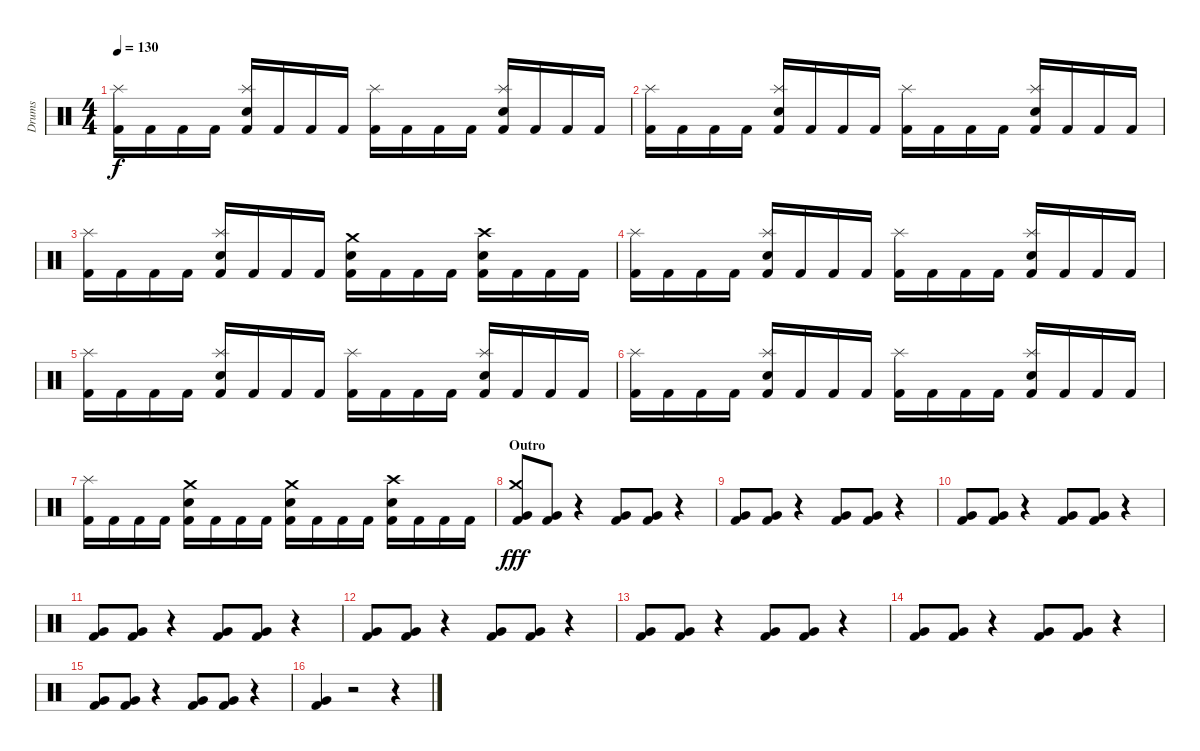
\track ("Drums" "Drums") {instrument percussion}
\staff {score}
\articulation defaults
\ts (4 4)
\tempo 130
\clef neutral
\ks c
("Kick (hit) 2" "Splash (hit)").16{dy f} "Kick (hit) 2".16 "Kick (hit) 2".16 "Kick (hit) 2".16 ("Kick (hit) 2" "Electric Snare (hit)" "Splash (hit)").16 "Kick (hit) 2".16 "Kick (hit) 2".16 "Kick (hit) 2".16 ("Kick (hit) 2" "Splash (hit)").16 "Kick (hit) 2".16 "Kick (hit) 2".16 "Kick (hit) 2".16 ("Kick (hit) 2" "Electric Snare (hit)" "Splash (hit)").16 "Kick (hit) 2".16 "Kick (hit) 2".16 "Kick (hit) 2".16 |
("Kick (hit) 2" "Splash (hit)").16 "Kick (hit) 2".16 "Kick (hit) 2".16 "Kick (hit) 2".16 ("Kick (hit) 2" "Electric Snare (hit)" "Splash (hit)").16 "Kick (hit) 2".16 "Kick (hit) 2".16 "Kick (hit) 2".16 ("Kick (hit) 2" "Splash (hit)").16 "Kick (hit) 2".16 "Kick (hit) 2".16 "Kick (hit) 2".16 ("Kick (hit) 2" "Electric Snare (hit)" "Splash (hit)").16 "Kick (hit) 2".16 "Kick (hit) 2".16 "Kick (hit) 2".16 |
("Kick (hit) 2" "Splash (hit)").16 "Kick (hit) 2".16 "Kick (hit) 2".16 "Kick (hit) 2".16 ("Kick (hit) 2" "Electric Snare (hit)" "Splash (hit)").16 "Kick (hit) 2".16 "Kick (hit) 2".16 "Kick (hit) 2".16 ("Kick (hit) 2" "Electric Snare (hit)" "Crash medium (hit)").16 "Kick (hit) 2".16 "Kick (hit) 2".16 "Kick (hit) 2".16 ("Kick (hit) 2" "Electric Snare (hit)" "Crash high (hit)").16 "Kick (hit) 2".16 "Kick (hit) 2".16 "Kick (hit) 2".16 |
("Kick (hit) 2" "Splash (hit)").16 "Kick (hit) 2".16 "Kick (hit) 2".16 "Kick (hit) 2".16 ("Kick (hit) 2" "Electric Snare (hit)" "Splash (hit)").16 "Kick (hit) 2".16 "Kick (hit) 2".16 "Kick (hit) 2".16 ("Kick (hit) 2" "Splash (hit)").16 "Kick (hit) 2".16 "Kick (hit) 2".16 "Kick (hit) 2".16 ("Kick (hit) 2" "Electric Snare (hit)" "Splash (hit)").16 "Kick (hit) 2".16 "Kick (hit) 2".16 "Kick (hit) 2".16 |
("Kick (hit) 2" "Splash (hit)").16 "Kick (hit) 2".16 "Kick (hit) 2".16 "Kick (hit) 2".16 ("Kick (hit) 2" "Electric Snare (hit)" "Splash (hit)").16 "Kick (hit) 2".16 "Kick (hit) 2".16 "Kick (hit) 2".16 ("Kick (hit) 2" "Splash (hit)").16 "Kick (hit) 2".16 "Kick (hit) 2".16 "Kick (hit) 2".16 ("Kick (hit) 2" "Electric Snare (hit)" "Splash (hit)").16 "Kick (hit) 2".16 "Kick (hit) 2".16 "Kick (hit) 2".16 |
("Kick (hit) 2" "Splash (hit)").16 "Kick (hit) 2".16 "Kick (hit) 2".16 "Kick (hit) 2".16 ("Kick (hit) 2" "Electric Snare (hit)" "Splash (hit)").16 "Kick (hit) 2".16 "Kick (hit) 2".16 "Kick (hit) 2".16 ("Kick (hit) 2" "Splash (hit)").16 "Kick (hit) 2".16 "Kick (hit) 2".16 "Kick (hit) 2".16 ("Kick (hit) 2" "Electric Snare (hit)" "Splash (hit)").16 "Kick (hit) 2".16 "Kick (hit) 2".16 "Kick (hit) 2".16 |
("Kick (hit) 2" "Splash (hit)").16 "Kick (hit) 2".16 "Kick (hit) 2".16 "Kick (hit) 2".16 ("Kick (hit) 2" "Electric Snare (hit)" "Crash medium (hit)").16 "Kick (hit) 2".16 "Kick (hit) 2".16 "Kick (hit) 2".16 ("Kick (hit) 2" "Electric Snare (hit)" "Crash medium (hit)").16 "Kick (hit) 2".16 "Kick (hit) 2".16 "Kick (hit) 2".16 ("Kick (hit) 2" "Electric Snare (hit)" "Crash high (hit)").16 "Kick (hit) 2".16 "Kick (hit) 2".16 "Kick (hit) 2".16 |
\section ("" "Outro")
("Kick (hit) 2" "Very Low Tom (hit)" "Crash medium (hit)").8{dy fff} ("Kick (hit) 2" "Very Low Tom (hit)").8 r.4 ("Kick (hit) 2" "Very Low Tom (hit)").8 ("Kick (hit) 2" "Very Low Tom (hit)").8 r.4 |
("Kick (hit) 2" "Very Low Tom (hit)").8 ("Kick (hit) 2" "Very Low Tom (hit)").8 r.4 ("Kick (hit) 2" "Very Low Tom (hit)").8 ("Kick (hit) 2" "Very Low Tom (hit)").8 r.4 |
("Kick (hit) 2" "Very Low Tom (hit)").8 ("Kick (hit) 2" "Very Low Tom (hit)").8 r.4 ("Kick (hit) 2" "Very Low Tom (hit)").8 ("Kick (hit) 2" "Very Low Tom (hit)").8 r.4 |
("Kick (hit) 2" "Very Low Tom (hit)").8 ("Kick (hit) 2" "Very Low Tom (hit)").8 r.4 ("Kick (hit) 2" "Very Low Tom (hit)").8 ("Kick (hit) 2" "Very Low Tom (hit)").8 r.4 |
("Kick (hit) 2" "Very Low Tom (hit)").8 ("Kick (hit) 2" "Very Low Tom (hit)").8 r.4 ("Kick (hit) 2" "Very Low Tom (hit)").8 ("Kick (hit) 2" "Very Low Tom (hit)").8 r.4 |
("Kick (hit) 2" "Very Low Tom (hit)").8 ("Kick (hit) 2" "Very Low Tom (hit)").8 r.4 ("Kick (hit) 2" "Very Low Tom (hit)").8 ("Kick (hit) 2" "Very Low Tom (hit)").8 r.4 |
("Kick (hit) 2" "Very Low Tom (hit)").8 ("Kick (hit) 2" "Very Low Tom (hit)").8 r.4 ("Kick (hit) 2" "Very Low Tom (hit)").8 ("Kick (hit) 2" "Very Low Tom (hit)").8 r.4 |
("Kick (hit) 2" "Very Low Tom (hit)").8 ("Kick (hit) 2" "Very Low Tom (hit)").8 r.4 ("Kick (hit) 2" "Very Low Tom (hit)").8 ("Kick (hit) 2" "Very Low Tom (hit)").8 r.4 |
("Kick (hit) 2" "Very Low Tom (hit)").4 r.2 r.4
